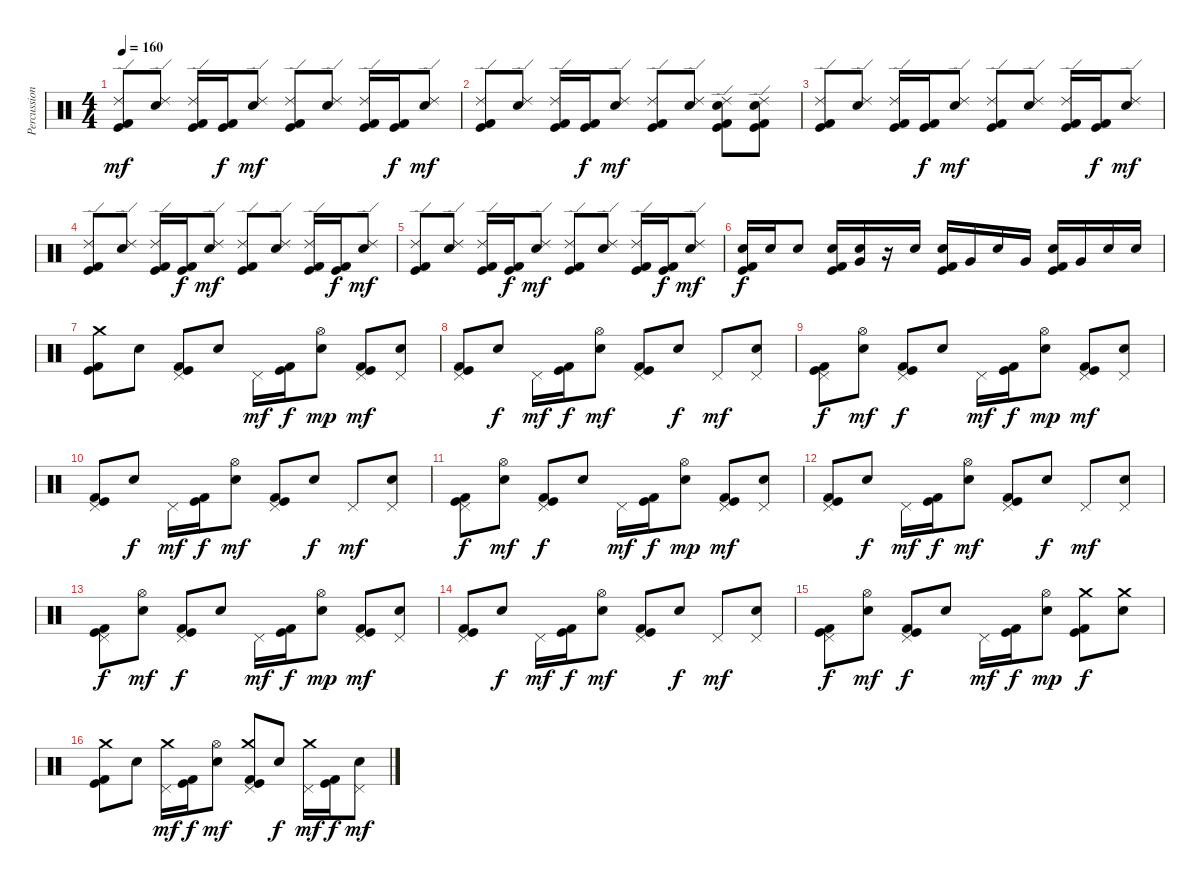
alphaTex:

\track ("Percussions" "Percussion") {instrument percussion}
\staff {score}
\articulation defaults
\ts (4 4)
\tempo 160
\clef neutral
\ks c
("Ride (edge) 2" "Kick (hit)" "Kick (hit) 2").8{dy mf} ("Ride (edge) 2" "Electric Snare (hit)").8 ("Ride (edge) 2" "Kick (hit)" "Kick (hit) 2").16 ("Kick (hit)" "Kick (hit) 2").16{dy f} ("Ride (edge) 2" "Electric Snare (hit)").8{dy mf} ("Ride (edge) 2" "Kick (hit)" "Kick (hit) 2").8 ("Ride (edge) 2" "Electric Snare (hit)").8 ("Ride (edge) 2" "Kick (hit)" "Kick (hit) 2").16 ("Kick (hit)" "Kick (hit) 2").16{dy f} ("Ride (edge) 2" "Electric Snare (hit)").8{dy mf} |
("Ride (edge) 2" "Kick (hit)" "Kick (hit) 2").8 ("Ride (edge) 2" "Electric Snare (hit)").8 ("Ride (edge) 2" "Kick (hit)" "Kick (hit) 2").16 ("Kick (hit)" "Kick (hit) 2").16{dy f} ("Ride (edge) 2" "Electric Snare (hit)").8{dy mf} ("Ride (edge) 2" "Kick (hit)" "Kick (hit) 2").8 ("Ride (edge) 2" "Electric Snare (hit)").8 ("Ride (edge) 2" "Electric Snare (hit)" "Kick (hit)" "Kick (hit) 2").8 ("Ride (edge) 2" "Electric Snare (hit)" "Kick (hit)" "Kick (hit) 2").8 |
("Ride (edge) 2" "Kick (hit)" "Kick (hit) 2").8 ("Ride (edge) 2" "Electric Snare (hit)").8 ("Ride (edge) 2" "Kick (hit)" "Kick (hit) 2").16 ("Kick (hit)" "Kick (hit) 2").16{dy f} ("Ride (edge) 2" "Electric Snare (hit)").8{dy mf} ("Ride (edge) 2" "Kick (hit)" "Kick (hit) 2").8 ("Ride (edge) 2" "Electric Snare (hit)").8 ("Ride (edge) 2" "Kick (hit)" "Kick (hit) 2").16 ("Kick (hit)" "Kick (hit) 2").16{dy f} ("Ride (edge) 2" "Electric Snare (hit)").8{dy mf} |
("Ride (edge) 2" "Kick (hit)" "Kick (hit) 2").8 ("Ride (edge) 2" "Electric Snare (hit)").8 ("Ride (edge) 2" "Kick (hit)" "Kick (hit) 2").16 ("Kick (hit)" "Kick (hit) 2").16{dy f} ("Ride (edge) 2" "Electric Snare (hit)").8{dy mf} ("Ride (edge) 2" "Kick (hit)" "Kick (hit) 2").8 ("Ride (edge) 2" "Electric Snare (hit)").8 ("Ride (edge) 2" "Kick (hit)" "Kick (hit) 2").16 ("Kick (hit)" "Kick (hit) 2").16{dy f} ("Ride (edge) 2" "Electric Snare (hit)").8{dy mf} |
("Ride (edge) 2" "Kick (hit)" "Kick (hit) 2").8 ("Ride (edge) 2" "Electric Snare (hit)").8 ("Ride (edge) 2" "Kick (hit)" "Kick (hit) 2").16 ("Kick (hit)" "Kick (hit) 2").16{dy f} ("Ride (edge) 2" "Electric Snare (hit)").8{dy mf} ("Ride (edge) 2" "Kick (hit)" "Kick (hit) 2").8 ("Ride (edge) 2" "Electric Snare (hit)").8 ("Ride (edge) 2" "Kick (hit)" "Kick (hit) 2").16 ("Kick (hit)" "Kick (hit) 2").16{dy f} ("Ride (edge) 2" "Electric Snare (hit)").8{dy mf} |
("Electric Snare (hit)" "Kick (hit)" "Kick (hit) 2").16{dy f} "Electric Snare (hit)".16 "Electric Snare (hit)".8 ("Electric Snare (hit)" "Kick (hit)" "Kick (hit) 2").16 ("Electric Snare (hit)" "Very Low Tom (hit)").16 r.16 "Electric Snare (hit)".16 ("Electric Snare (hit)" "Kick (hit)" "Kick (hit) 2").16 "Very Low Tom (hit)".16 "Electric Snare (hit)".16 "Very Low Tom (hit)".16 ("Electric Snare (hit)" "Kick (hit)" "Kick (hit) 2").16 "Very Low Tom (hit)".16 "Electric Snare (hit)".16 "Electric Snare (hit)".16 |
("Crash medium (hit)" "Kick (hit)" "Kick (hit) 2").8 "Electric Snare (hit)".8 ("Pedal Hi-Hat (hit)" "Kick (hit)" "Kick (hit) 2").8 "Electric Snare (hit)".8 "Pedal Hi-Hat (hit)".16{dy mf} ("Kick (hit)" "Kick (hit) 2").16{dy f} ("Hi-Hat (open)" "Electric Snare (hit)").8{dy mp} ("Pedal Hi-Hat (hit)" "Kick (hit)" "Kick (hit) 2").8{dy mf} ("Pedal Hi-Hat (hit)" "Electric Snare (hit)").8 |
("Pedal Hi-Hat (hit)" "Kick (hit)" "Kick (hit) 2").8 "Electric Snare (hit)".8{dy f} "Pedal Hi-Hat (hit)".16{dy mf} ("Kick (hit)" "Kick (hit) 2").16{dy f} ("Hi-Hat (open)" "Electric Snare (hit)").8{dy mf} ("Pedal Hi-Hat (hit)" "Kick (hit)" "Kick (hit) 2").8 "Electric Snare (hit)".8{dy f} "Pedal Hi-Hat (hit)".8{dy mf} ("Pedal Hi-Hat (hit)" "Electric Snare (hit)").8 |
("Pedal Hi-Hat (hit)" "Kick (hit)" "Kick (hit) 2").8{dy f} ("Hi-Hat (open)" "Electric Snare (hit)").8{dy mf} ("Pedal Hi-Hat (hit)" "Kick (hit)" "Kick (hit) 2").8{dy f} "Electric Snare (hit)".8 "Pedal Hi-Hat (hit)".16{dy mf} ("Kick (hit)" "Kick (hit) 2").16{dy f} ("Hi-Hat (open)" "Electric Snare (hit)").8{dy mp} ("Pedal Hi-Hat (hit)" "Kick (hit)" "Kick (hit) 2").8{dy mf} ("Pedal Hi-Hat (hit)" "Electric Snare (hit)").8 |
("Pedal Hi-Hat (hit)" "Kick (hit)" "Kick (hit) 2").8 "Electric Snare (hit)".8{dy f} "Pedal Hi-Hat (hit)".16{dy mf} ("Kick (hit)" "Kick (hit) 2").16{dy f} ("Hi-Hat (open)" "Electric Snare (hit)").8{dy mf} ("Pedal Hi-Hat (hit)" "Kick (hit)" "Kick (hit) 2").8 "Electric Snare (hit)".8{dy f} "Pedal Hi-Hat (hit)".8{dy mf} ("Pedal Hi-Hat (hit)" "Electric Snare (hit)").8 |
("Pedal Hi-Hat (hit)" "Kick (hit)" "Kick (hit) 2").8{dy f} ("Hi-Hat (open)" "Electric Snare (hit)").8{dy mf} ("Pedal Hi-Hat (hit)" "Kick (hit)" "Kick (hit) 2").8{dy f} "Electric Snare (hit)".8 "Pedal Hi-Hat (hit)".16{dy mf} ("Kick (hit)" "Kick (hit) 2").16{dy f} ("Hi-Hat (open)" "Electric Snare (hit)").8{dy mp} ("Pedal Hi-Hat (hit)" "Kick (hit)" "Kick (hit) 2").8{dy mf} ("Pedal Hi-Hat (hit)" "Electric Snare (hit)").8 |
("Pedal Hi-Hat (hit)" "Kick (hit)" "Kick (hit) 2").8 "Electric Snare (hit)".8{dy f} "Pedal Hi-Hat (hit)".16{dy mf} ("Kick (hit)" "Kick (hit) 2").16{dy f} ("Hi-Hat (open)" "Electric Snare (hit)").8{dy mf} ("Pedal Hi-Hat (hit)" "Kick (hit)" "Kick (hit) 2").8 "Electric Snare (hit)".8{dy f} "Pedal Hi-Hat (hit)".8{dy mf} ("Pedal Hi-Hat (hit)" "Electric Snare (hit)").8 |
("Pedal Hi-Hat (hit)" "Kick (hit)" "Kick (hit) 2").8{dy f} ("Hi-Hat (open)" "Electric Snare (hit)").8{dy mf} ("Pedal Hi-Hat (hit)" "Kick (hit)" "Kick (hit) 2").8{dy f} "Electric Snare (hit)".8 "Pedal Hi-Hat (hit)".16{dy mf} ("Kick (hit)" "Kick (hit) 2").16{dy f} ("Hi-Hat (open)" "Electric Snare (hit)").8{dy mp} ("Pedal Hi-Hat (hit)" "Kick (hit)" "Kick (hit) 2").8{dy mf} ("Pedal Hi-Hat (hit)" "Electric Snare (hit)").8 |
("Pedal Hi-Hat (hit)" "Kick (hit)" "Kick (hit) 2").8 "Electric Snare (hit)".8{dy f} "Pedal Hi-Hat (hit)".16{dy mf} ("Kick (hit)" "Kick (hit) 2").16{dy f} ("Hi-Hat (open)" "Electric Snare (hit)").8{dy mf} ("Pedal Hi-Hat (hit)" "Kick (hit)" "Kick (hit) 2").8 "Electric Snare (hit)".8{dy f} "Pedal Hi-Hat (hit)".8{dy mf} ("Pedal Hi-Hat (hit)" "Electric Snare (hit)").8 |
("Pedal Hi-Hat (hit)" "Kick (hit)" "Kick (hit) 2").8{dy f} ("Hi-Hat (open)" "Electric Snare (hit)").8{dy mf} ("Pedal Hi-Hat (hit)" "Kick (hit)" "Kick (hit) 2").8{dy f} "Electric Snare (hit)".8 "Pedal Hi-Hat (hit)".16{dy mf} ("Kick (hit)" "Kick (hit) 2").16{dy f} ("Hi-Hat (open)" "Electric Snare (hit)").8{dy mp} ("Crash medium (hit)" "Kick (hit)" "Kick (hit) 2").8{dy f} ("Crash medium (hit)" "Electric Snare (hit)").8 |
("Crash medium (hit)" "Kick (hit)" "Kick (hit) 2").8 "Electric Snare (hit)".8 ("Crash medium (hit)" "Pedal Hi-Hat (hit)").16{dy mf} ("Kick (hit)" "Kick (hit) 2").16{dy f} ("Hi-Hat (open)" "Electric Snare (hit)").8{dy mf} ("Crash medium (hit)" "Pedal Hi-Hat (hit)" "Kick (hit)" "Kick (hit) 2").8 "Electric Snare (hit)".8{dy f} ("Crash medium (hit)" "Pedal Hi-Hat (hit)").16{dy mf} ("Kick (hit)" "Kick (hit) 2").16{dy f} ("Pedal Hi-Hat (hit)" "Electric Snare (hit)").8{dy mf}
